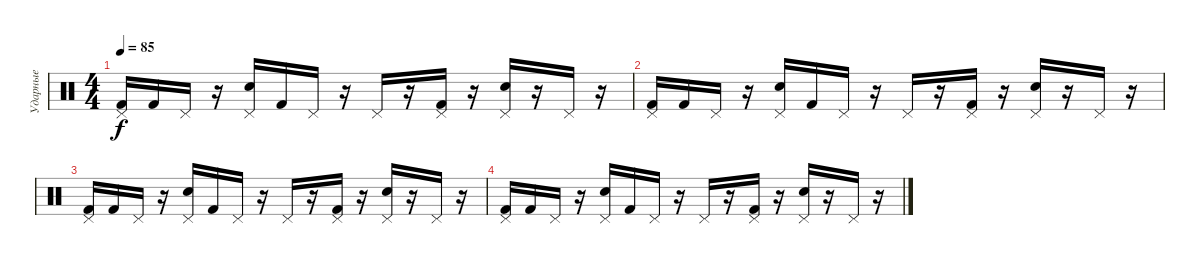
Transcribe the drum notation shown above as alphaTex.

\track ("Ударные" "Ударные") {instrument percussion}
\staff {score}
\articulation defaults
\ts (4 4)
\tempo 85
\clef neutral
\ks c
("Pedal Hi-Hat (hit)" "Kick (hit) 2").16{dy f} "Kick (hit) 2".16 "Pedal Hi-Hat (hit)".16 r.16 ("Pedal Hi-Hat (hit)" "Electric Snare (hit)").16 "Kick (hit) 2".16 "Pedal Hi-Hat (hit)".16 r.16 "Pedal Hi-Hat (hit)".16 r.16 ("Pedal Hi-Hat (hit)" "Kick (hit) 2").16 r.16 ("Pedal Hi-Hat (hit)" "Electric Snare (hit)").16 r.16 "Pedal Hi-Hat (hit)".16 r.16 |
("Pedal Hi-Hat (hit)" "Kick (hit) 2").16 "Kick (hit) 2".16 "Pedal Hi-Hat (hit)".16 r.16 ("Pedal Hi-Hat (hit)" "Electric Snare (hit)").16 "Kick (hit) 2".16 "Pedal Hi-Hat (hit)".16 r.16 "Pedal Hi-Hat (hit)".16 r.16 ("Pedal Hi-Hat (hit)" "Kick (hit) 2").16 r.16 ("Pedal Hi-Hat (hit)" "Electric Snare (hit)").16 r.16 "Pedal Hi-Hat (hit)".16 r.16 |
("Pedal Hi-Hat (hit)" "Kick (hit) 2").16 "Kick (hit) 2".16 "Pedal Hi-Hat (hit)".16 r.16 ("Pedal Hi-Hat (hit)" "Electric Snare (hit)").16 "Kick (hit) 2".16 "Pedal Hi-Hat (hit)".16 r.16 "Pedal Hi-Hat (hit)".16 r.16 ("Pedal Hi-Hat (hit)" "Kick (hit) 2").16 r.16 ("Pedal Hi-Hat (hit)" "Electric Snare (hit)").16 r.16 "Pedal Hi-Hat (hit)".16 r.16 |
("Pedal Hi-Hat (hit)" "Kick (hit) 2").16 "Kick (hit) 2".16 "Pedal Hi-Hat (hit)".16 r.16 ("Pedal Hi-Hat (hit)" "Electric Snare (hit)").16 "Kick (hit) 2".16 "Pedal Hi-Hat (hit)".16 r.16 "Pedal Hi-Hat (hit)".16 r.16 ("Pedal Hi-Hat (hit)" "Kick (hit) 2").16 r.16 ("Pedal Hi-Hat (hit)" "Electric Snare (hit)").16 r.16 "Pedal Hi-Hat (hit)".16 r.16
